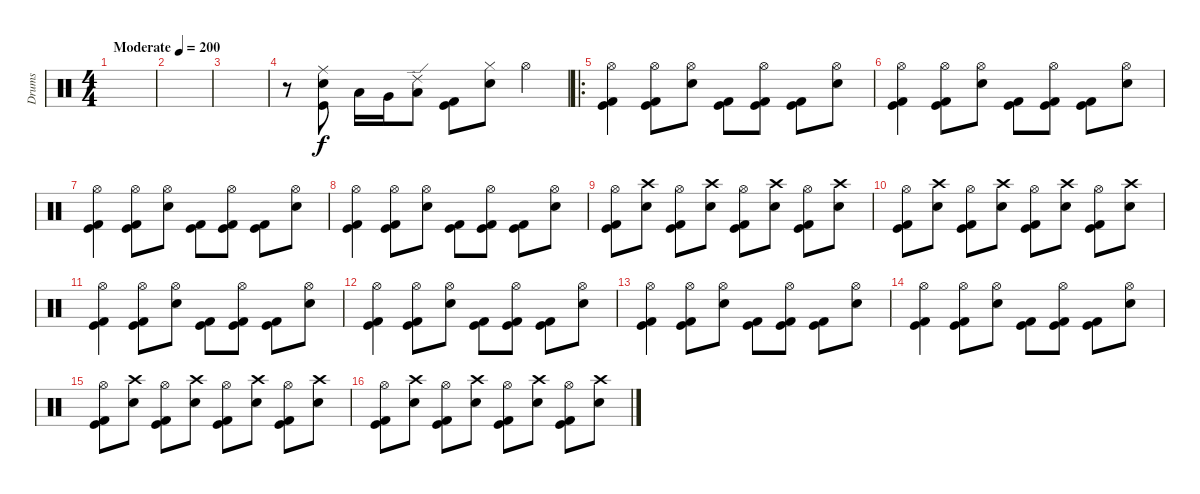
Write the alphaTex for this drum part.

\track ("Drums" "Drums") {instrument percussion}
\staff {score}
\articulation defaults
\ts (4 4)
\tempo (200 "Moderate")
\clef neutral
\ks c
|
|
|
r.8 ("Electric Snare (hit)" "Kick (hit)" "Ride (middle)").8 "Low Tom (hit)".16 "Very Low Tom (hit)".16 ("Low Floor Tom (hit)" "Ride (edge) 2").8 ("Kick (hit)" "Kick (hit) 2").8 ("Electric Snare (hit)" "Hi-Hat (closed)").8 "Hi-Hat (open)".4 |
\ro
("Hi-Hat (open)" "Kick (hit) 2" "Kick (hit)").4 ("Hi-Hat (open)" "Kick (hit) 2" "Kick (hit)").8 ("Hi-Hat (open)" "Electric Snare (hit)").8 ("Kick (hit) 2" "Kick (hit)").8 ("Hi-Hat (open)" "Kick (hit) 2" "Kick (hit)").8 ("Kick (hit) 2" "Kick (hit)").8 ("Hi-Hat (open)" "Electric Snare (hit)").8 |
("Hi-Hat (open)" "Kick (hit) 2" "Kick (hit)").4 ("Hi-Hat (open)" "Kick (hit) 2" "Kick (hit)").8 ("Hi-Hat (open)" "Electric Snare (hit)").8 ("Kick (hit) 2" "Kick (hit)").8 ("Hi-Hat (open)" "Kick (hit) 2" "Kick (hit)").8 ("Kick (hit) 2" "Kick (hit)").8 ("Hi-Hat (open)" "Electric Snare (hit)").8 |
("Hi-Hat (open)" "Kick (hit) 2" "Kick (hit)").4 ("Hi-Hat (open)" "Kick (hit) 2" "Kick (hit)").8 ("Hi-Hat (open)" "Electric Snare (hit)").8 ("Kick (hit) 2" "Kick (hit)").8 ("Hi-Hat (open)" "Kick (hit) 2" "Kick (hit)").8 ("Kick (hit) 2" "Kick (hit)").8 ("Hi-Hat (open)" "Electric Snare (hit)").8 |
("Hi-Hat (open)" "Kick (hit) 2" "Kick (hit)").4 ("Hi-Hat (open)" "Kick (hit) 2" "Kick (hit)").8 ("Hi-Hat (open)" "Electric Snare (hit)").8 ("Kick (hit) 2" "Kick (hit)").8 ("Hi-Hat (open)" "Kick (hit) 2" "Kick (hit)").8 ("Kick (hit) 2" "Kick (hit)").8 ("Hi-Hat (open)" "Electric Snare (hit)").8 |
("Hi-Hat (open)" "Kick (hit)" "Kick (hit) 2").8 ("Electric Snare (hit)" "Crash high (hit)").8 ("Hi-Hat (open)" "Kick (hit)" "Kick (hit) 2").8 ("Electric Snare (hit)" "Crash high (hit)").8 ("Hi-Hat (open)" "Kick (hit)" "Kick (hit) 2").8 ("Electric Snare (hit)" "Crash high (hit)").8 ("Hi-Hat (open)" "Kick (hit)" "Kick (hit) 2").8 ("Electric Snare (hit)" "Crash high (hit)").8 |
("Hi-Hat (open)" "Kick (hit)" "Kick (hit) 2").8 ("Electric Snare (hit)" "Crash high (hit)").8 ("Hi-Hat (open)" "Kick (hit)" "Kick (hit) 2").8 ("Electric Snare (hit)" "Crash high (hit)").8 ("Hi-Hat (open)" "Kick (hit)" "Kick (hit) 2").8 ("Electric Snare (hit)" "Crash high (hit)").8 ("Hi-Hat (open)" "Kick (hit)" "Kick (hit) 2").8 ("Electric Snare (hit)" "Crash high (hit)").8 |
("Hi-Hat (open)" "Kick (hit) 2" "Kick (hit)").4 ("Hi-Hat (open)" "Kick (hit) 2" "Kick (hit)").8 ("Hi-Hat (open)" "Electric Snare (hit)").8 ("Kick (hit) 2" "Kick (hit)").8 ("Hi-Hat (open)" "Kick (hit) 2" "Kick (hit)").8 ("Kick (hit) 2" "Kick (hit)").8 ("Hi-Hat (open)" "Electric Snare (hit)").8 |
("Hi-Hat (open)" "Kick (hit) 2" "Kick (hit)").4 ("Hi-Hat (open)" "Kick (hit) 2" "Kick (hit)").8 ("Hi-Hat (open)" "Electric Snare (hit)").8 ("Kick (hit) 2" "Kick (hit)").8 ("Hi-Hat (open)" "Kick (hit) 2" "Kick (hit)").8 ("Kick (hit) 2" "Kick (hit)").8 ("Hi-Hat (open)" "Electric Snare (hit)").8 |
("Hi-Hat (open)" "Kick (hit) 2" "Kick (hit)").4 ("Hi-Hat (open)" "Kick (hit) 2" "Kick (hit)").8 ("Hi-Hat (open)" "Electric Snare (hit)").8 ("Kick (hit) 2" "Kick (hit)").8 ("Hi-Hat (open)" "Kick (hit) 2" "Kick (hit)").8 ("Kick (hit) 2" "Kick (hit)").8 ("Hi-Hat (open)" "Electric Snare (hit)").8 |
("Hi-Hat (open)" "Kick (hit) 2" "Kick (hit)").4 ("Hi-Hat (open)" "Kick (hit) 2" "Kick (hit)").8 ("Hi-Hat (open)" "Electric Snare (hit)").8 ("Kick (hit) 2" "Kick (hit)").8 ("Hi-Hat (open)" "Kick (hit) 2" "Kick (hit)").8 ("Kick (hit) 2" "Kick (hit)").8 ("Hi-Hat (open)" "Electric Snare (hit)").8 |
("Hi-Hat (open)" "Kick (hit)" "Kick (hit) 2").8 ("Electric Snare (hit)" "Crash high (hit)").8 ("Hi-Hat (open)" "Kick (hit)" "Kick (hit) 2").8 ("Electric Snare (hit)" "Crash high (hit)").8 ("Hi-Hat (open)" "Kick (hit)" "Kick (hit) 2").8 ("Electric Snare (hit)" "Crash high (hit)").8 ("Hi-Hat (open)" "Kick (hit)" "Kick (hit) 2").8 ("Electric Snare (hit)" "Crash high (hit)").8 |
("Hi-Hat (open)" "Kick (hit)" "Kick (hit) 2").8 ("Electric Snare (hit)" "Crash high (hit)").8 ("Hi-Hat (open)" "Kick (hit)" "Kick (hit) 2").8 ("Electric Snare (hit)" "Crash high (hit)").8 ("Hi-Hat (open)" "Kick (hit)" "Kick (hit) 2").8 ("Electric Snare (hit)" "Crash high (hit)").8 ("Hi-Hat (open)" "Kick (hit)" "Kick (hit) 2").8 ("Electric Snare (hit)" "Crash high (hit)").8
